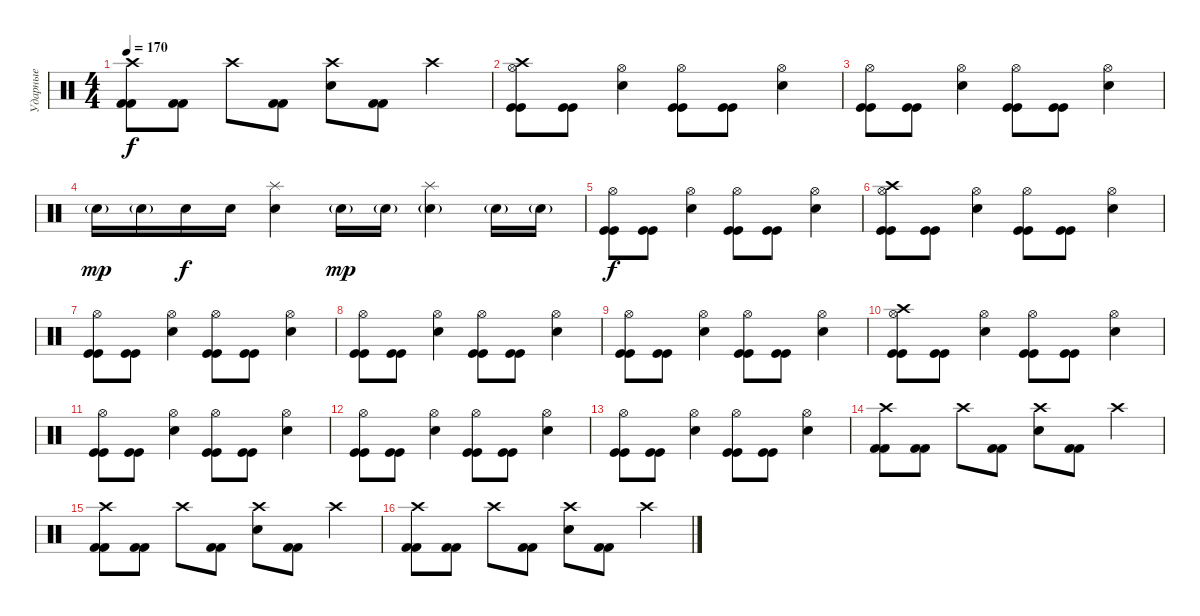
\track ("Ударные" "Ударные") {instrument percussion}
\staff {score}
\articulation defaults
\ts (4 4)
\tempo 170
\clef neutral
\ks c
("Crash high (hit)" "Kick (hit) 2" "Kick (hit) 2").8{dy f} ("Kick (hit) 2" "Kick (hit) 2").8 "Crash high (hit)".8 ("Kick (hit) 2" "Kick (hit) 2").8 ("Crash high (hit)" "Electric Snare (hit)").8 ("Kick (hit) 2" "Kick (hit) 2").8 "Crash high (hit)".4 |
("Crash high (hit)" "Hi-Hat (open)" "Kick (hit)" "Kick (hit)").8 ("Kick (hit)" "Kick (hit)").8 ("Hi-Hat (open)" "Electric Snare (hit)").4 ("Hi-Hat (open)" "Kick (hit)" "Kick (hit)").8 ("Kick (hit)" "Kick (hit)").8 ("Hi-Hat (open)" "Electric Snare (hit)").4 |
("Hi-Hat (open)" "Kick (hit)" "Kick (hit)").8 ("Kick (hit)" "Kick (hit)").8 ("Hi-Hat (open)" "Electric Snare (hit)").4 ("Hi-Hat (open)" "Kick (hit)" "Kick (hit)").8 ("Kick (hit)" "Kick (hit)").8 ("Hi-Hat (open)" "Electric Snare (hit)").4 |
"Electric Snare (hit)"{g}.16{dy mp} "Electric Snare (hit)"{g}.16 "Electric Snare (hit)".16{dy f} "Electric Snare (hit)".16 ("Splash (hit)" "Electric Snare (hit)").4 "Electric Snare (hit)"{g}.16{dy mp} "Electric Snare (hit)"{g}.16 ("Splash (hit)" "Electric Snare (hit)"{g}).4 "Electric Snare (hit)"{g}.16 "Electric Snare (hit)"{g}.16 |
("Hi-Hat (open)" "Kick (hit)" "Kick (hit)").8{dy f} ("Kick (hit)" "Kick (hit)").8 ("Hi-Hat (open)" "Electric Snare (hit)").4 ("Hi-Hat (open)" "Kick (hit)" "Kick (hit)").8 ("Kick (hit)" "Kick (hit)").8 ("Hi-Hat (open)" "Electric Snare (hit)").4 |
("Crash high (hit)" "Hi-Hat (open)" "Kick (hit)" "Kick (hit)").8 ("Kick (hit)" "Kick (hit)").8 ("Hi-Hat (open)" "Electric Snare (hit)").4 ("Hi-Hat (open)" "Kick (hit)" "Kick (hit)").8 ("Kick (hit)" "Kick (hit)").8 ("Hi-Hat (open)" "Electric Snare (hit)").4 |
("Hi-Hat (open)" "Kick (hit)" "Kick (hit)").8 ("Kick (hit)" "Kick (hit)").8 ("Hi-Hat (open)" "Electric Snare (hit)").4 ("Hi-Hat (open)" "Kick (hit)" "Kick (hit)").8 ("Kick (hit)" "Kick (hit)").8 ("Hi-Hat (open)" "Electric Snare (hit)").4 |
("Hi-Hat (open)" "Kick (hit)" "Kick (hit)").8 ("Kick (hit)" "Kick (hit)").8 ("Hi-Hat (open)" "Electric Snare (hit)").4 ("Hi-Hat (open)" "Kick (hit)" "Kick (hit)").8 ("Kick (hit)" "Kick (hit)").8 ("Hi-Hat (open)" "Electric Snare (hit)").4 |
("Hi-Hat (open)" "Kick (hit)" "Kick (hit)").8 ("Kick (hit)" "Kick (hit)").8 ("Hi-Hat (open)" "Electric Snare (hit)").4 ("Hi-Hat (open)" "Kick (hit)" "Kick (hit)").8 ("Kick (hit)" "Kick (hit)").8 ("Hi-Hat (open)" "Electric Snare (hit)").4 |
("Crash high (hit)" "Hi-Hat (open)" "Kick (hit)" "Kick (hit)").8 ("Kick (hit)" "Kick (hit)").8 ("Hi-Hat (open)" "Electric Snare (hit)").4 ("Hi-Hat (open)" "Kick (hit)" "Kick (hit)").8 ("Kick (hit)" "Kick (hit)").8 ("Hi-Hat (open)" "Electric Snare (hit)").4 |
("Hi-Hat (open)" "Kick (hit)" "Kick (hit)").8 ("Kick (hit)" "Kick (hit)").8 ("Hi-Hat (open)" "Electric Snare (hit)").4 ("Hi-Hat (open)" "Kick (hit)" "Kick (hit)").8 ("Kick (hit)" "Kick (hit)").8 ("Hi-Hat (open)" "Electric Snare (hit)").4 |
("Hi-Hat (open)" "Kick (hit)" "Kick (hit)").8 ("Kick (hit)" "Kick (hit)").8 ("Hi-Hat (open)" "Electric Snare (hit)").4 ("Hi-Hat (open)" "Kick (hit)" "Kick (hit)").8 ("Kick (hit)" "Kick (hit)").8 ("Hi-Hat (open)" "Electric Snare (hit)").4 |
("Hi-Hat (open)" "Kick (hit)" "Kick (hit)").8 ("Kick (hit)" "Kick (hit)").8 ("Hi-Hat (open)" "Electric Snare (hit)").4 ("Hi-Hat (open)" "Kick (hit)" "Kick (hit)").8 ("Kick (hit)" "Kick (hit)").8 ("Hi-Hat (open)" "Electric Snare (hit)").4 |
("Crash high (hit)" "Kick (hit) 2" "Kick (hit) 2").8 ("Kick (hit) 2" "Kick (hit) 2").8 "Crash high (hit)".8 ("Kick (hit) 2" "Kick (hit) 2").8 ("Crash high (hit)" "Electric Snare (hit)").8 ("Kick (hit) 2" "Kick (hit) 2").8 "Crash high (hit)".4 |
("Crash high (hit)" "Kick (hit) 2" "Kick (hit) 2").8 ("Kick (hit) 2" "Kick (hit) 2").8 "Crash high (hit)".8 ("Kick (hit) 2" "Kick (hit) 2").8 ("Crash high (hit)" "Electric Snare (hit)").8 ("Kick (hit) 2" "Kick (hit) 2").8 "Crash high (hit)".4 |
("Crash high (hit)" "Kick (hit) 2" "Kick (hit) 2").8 ("Kick (hit) 2" "Kick (hit) 2").8 "Crash high (hit)".8 ("Kick (hit) 2" "Kick (hit) 2").8 ("Crash high (hit)" "Electric Snare (hit)").8 ("Kick (hit) 2" "Kick (hit) 2").8 "Crash high (hit)".4
